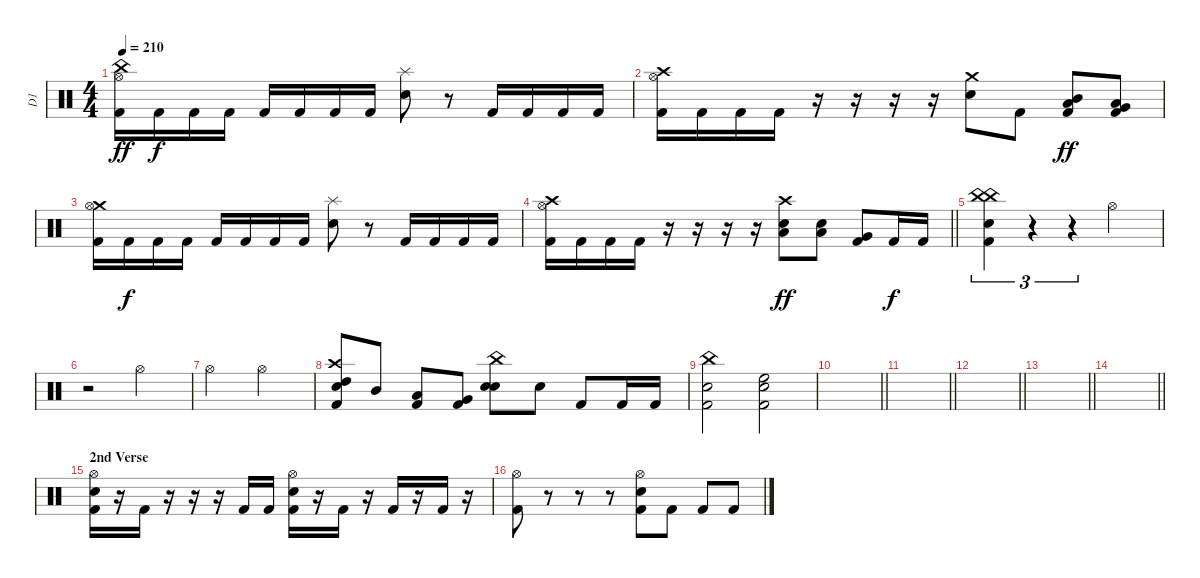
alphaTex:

\track ("D1" "D1") {instrument percussion}
\staff {score}
\articulation defaults
\ts (4 4)
\tempo 210
\clef neutral
\ks c
("China (hit)" "Hi-Hat (open)" "Kick (hit) 2").16{dy ff} "Kick (hit) 2".16{dy f} "Kick (hit) 2".16 "Kick (hit) 2".16 "Kick (hit) 2".16 "Kick (hit) 2".16 "Kick (hit) 2".16 "Kick (hit) 2".16 ("Splash (hit)" "Snare (hit) 2").8 r.8 "Kick (hit) 2".16 "Kick (hit) 2".16 "Kick (hit) 2".16 "Kick (hit) 2".16 |
("Crash high (hit)" "Hi-Hat (open)" "Kick (hit) 2").16 "Kick (hit) 2".16 "Kick (hit) 2".16 "Kick (hit) 2".16 r.16 r.16 r.16 r.16 ("Crash medium (hit)" "Snare (hit) 2").8 "Kick (hit) 2".8 ("Mid Tom (hit)" "Low Tom (hit)" "Kick (hit) 2").8{dy ff} ("Very Low Tom (hit)" "Low Tom (hit)" "Kick (hit) 2").8 |
("Crash medium (hit)" "Hi-Hat (open)" "Kick (hit) 2").16 "Kick (hit) 2".16{dy f} "Kick (hit) 2".16 "Kick (hit) 2".16 "Kick (hit) 2".16 "Kick (hit) 2".16 "Kick (hit) 2".16 "Kick (hit) 2".16 ("Splash (hit)" "Snare (hit) 2").8 r.8 "Kick (hit) 2".16 "Kick (hit) 2".16 "Kick (hit) 2".16 "Kick (hit) 2".16 |
\barLineRight lightlight
("Crash high (hit)" "Hi-Hat (open)" "Kick (hit) 2").16 "Kick (hit) 2".16 "Kick (hit) 2".16 "Kick (hit) 2".16 r.16 r.16 r.16 r.16 ("Crash high (hit)" "Low Tom (hit)" "Snare (hit) 2").8{dy ff} ("Low Tom (hit)" "Snare (hit) 2").8 ("Very Low Tom (hit)" "Kick (hit) 2").8 "Kick (hit) 2".16{dy f} "Kick (hit) 2".16 |
\section ("" "")
("China (hit)" "China (hit)" "Snare (hit) 2" "Kick (hit) 2").4{tu (3 2)} r.4{tu (3 2)} r.4{tu (3 2)} "Hi-Hat (open)".2 |
r.2 "Hi-Hat (open)".2 |
"Hi-Hat (open)".2 "Hi-Hat (open)".2 |
("Crash high (hit)" "Snare (hit) 2" "High Tom (hit)" "Kick (hit) 2").8 "Mid Tom (hit)".8 ("Low Tom (hit)" "Kick (hit) 2").8 ("Very Low Tom (hit)" "Kick (hit) 2").8 ("China (hit)" "Snare (hit) 2" "Snare (hit) 2").8 "Snare (hit) 2".8 "Kick (hit) 2".8 "Kick (hit) 2".16 "Kick (hit) 2".16 |
("China (hit)" "Snare (hit) 2" "Kick (hit) 2").2 ("High Floor Tom (hit)" "Snare (hit) 2" "Kick (hit) 2").2 |
\barLineRight lightlight
|
\barLineRight lightlight
|
\barLineRight lightlight
|
\barLineRight lightlight
|
\barLineRight lightlight
|
\section ("" "2nd Verse")
("Hi-Hat (open)" "Kick (hit) 2" "Snare (hit) 2").16 r.16 "Kick (hit) 2".16 r.16 r.16 r.16 "Kick (hit) 2".16 "Kick (hit) 2".16 ("Snare (hit) 2" "Kick (hit) 2" "Hi-Hat (open)").16 r.16 "Kick (hit) 2".16 r.16 "Kick (hit) 2".16 r.16 "Kick (hit) 2".16 r.16 |
("Hi-Hat (open)" "Kick (hit) 2").8 r.8 r.8 r.8 ("Snare (hit) 2" "Kick (hit) 2" "Hi-Hat (open)").8 "Kick (hit) 2".8 "Kick (hit) 2".8 "Kick (hit) 2".8
